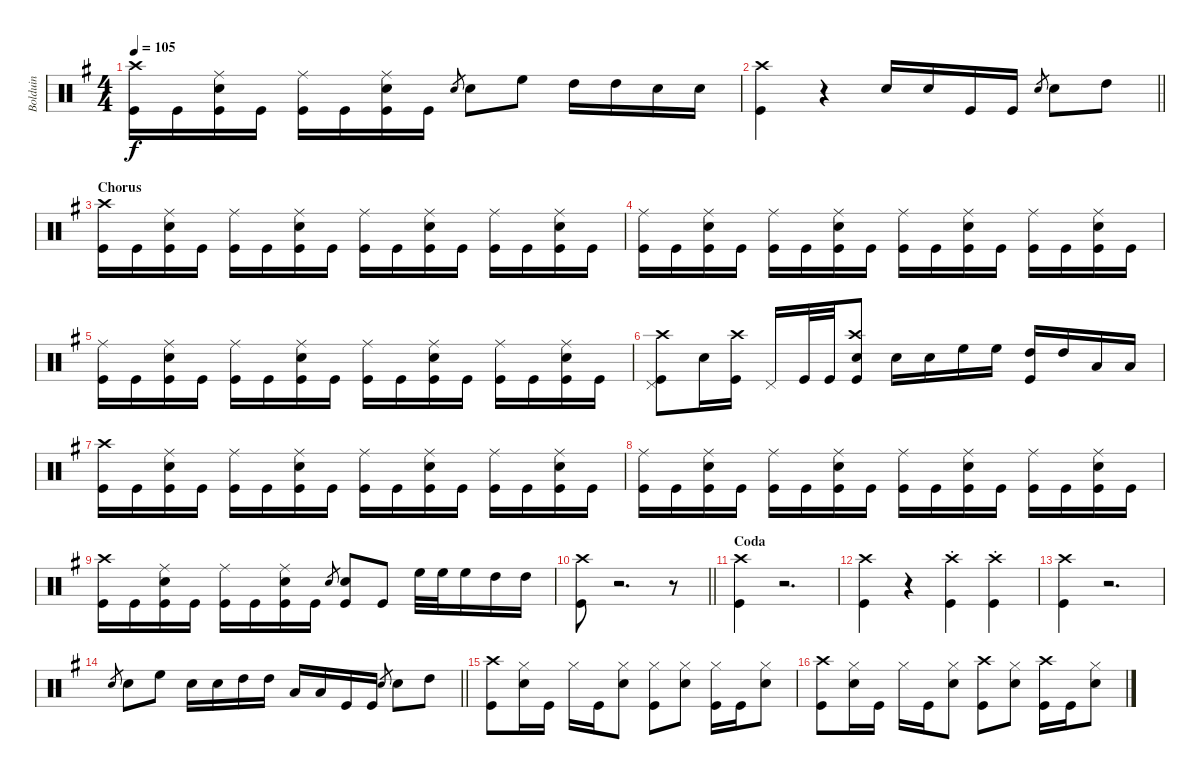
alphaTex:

\track ("Bolduin" "Bolduin") {instrument percussion}
\staff {score}
\articulation defaults
\ts (4 4)
\tempo 105
\clef neutral
\ks eminor
("Kick (hit)" "Crash high (hit)").16{dy f} "Kick (hit)".16 ("Kick (hit)" "Ride (middle)" "Snare (hit) 2").16 "Kick (hit)".16 ("Kick (hit)" "Ride (middle)").16 "Kick (hit)".16 ("Kick (hit)" "Ride (middle)" "Snare (hit) 2").16 "Kick (hit)".16 "Snare (hit) 2".8{gr} "Snare (hit) 2".8 "High Floor Tom (hit)".8 "High Tom (hit)".16 "High Tom (hit)".16 "Snare (hit) 2".16 "Snare (hit) 2".16 |
\barLineRight lightlight
("Kick (hit)" "Crash high (hit)").4 r.4 "Snare (hit) 2".16 "Snare (hit) 2".16 "Kick (hit)".16 "Kick (hit)".16 "Snare (hit) 2".8{gr} "Snare (hit) 2".8 "High Tom (hit)".8 |
\section ("" "Chorus")
("Kick (hit)" "Crash high (hit)").16 "Kick (hit)".16 ("Kick (hit)" "Ride (middle)" "Snare (hit) 2").16 "Kick (hit)".16 ("Kick (hit)" "Ride (middle)").16 "Kick (hit)".16 ("Kick (hit)" "Ride (middle)" "Snare (hit) 2").16 "Kick (hit)".16 ("Kick (hit)" "Ride (middle)").16 "Kick (hit)".16 ("Kick (hit)" "Ride (middle)" "Snare (hit) 2").16 "Kick (hit)".16 ("Kick (hit)" "Ride (middle)").16 "Kick (hit)".16 ("Kick (hit)" "Ride (middle)" "Snare (hit) 2").16 "Kick (hit)".16 |
("Kick (hit)" "Ride (middle)").16 "Kick (hit)".16 ("Kick (hit)" "Ride (middle)" "Snare (hit) 2").16 "Kick (hit)".16 ("Kick (hit)" "Ride (middle)").16 "Kick (hit)".16 ("Kick (hit)" "Ride (middle)" "Snare (hit) 2").16 "Kick (hit)".16 ("Kick (hit)" "Ride (middle)").16 "Kick (hit)".16 ("Kick (hit)" "Ride (middle)" "Snare (hit) 2").16 "Kick (hit)".16 ("Kick (hit)" "Ride (middle)").16 "Kick (hit)".16 ("Kick (hit)" "Ride (middle)" "Snare (hit) 2").16 "Kick (hit)".16 |
("Kick (hit)" "Ride (middle)").16 "Kick (hit)".16 ("Kick (hit)" "Ride (middle)" "Snare (hit) 2").16 "Kick (hit)".16 ("Kick (hit)" "Ride (middle)").16 "Kick (hit)".16 ("Kick (hit)" "Ride (middle)" "Snare (hit) 2").16 "Kick (hit)".16 ("Kick (hit)" "Ride (middle)").16 "Kick (hit)".16 ("Kick (hit)" "Ride (middle)" "Snare (hit) 2").16 "Kick (hit)".16 ("Kick (hit)" "Ride (middle)").16 "Kick (hit)".16 ("Kick (hit)" "Ride (middle)" "Snare (hit) 2").16 "Kick (hit)".16 |
("Crash high (hit)" "Pedal Hi-Hat (hit)" "Kick (hit)").8 "Snare (hit) 2".16 ("Crash high (hit)" "Kick (hit)").16 "Pedal Hi-Hat (hit)".16 "Kick (hit)".32 "Kick (hit)".32 ("Kick (hit)" "Crash high (hit)" "Snare (hit) 2").8 "Snare (hit) 2".16 "Snare (hit) 2".16 "High Floor Tom (hit)".16 "High Floor Tom (hit)".16 ("High Tom (hit)" "Kick (hit)").16 "High Tom (hit)".16 "Low Tom (hit)".16 "Low Tom (hit)".16 |
("Kick (hit)" "Crash high (hit)").16 "Kick (hit)".16 ("Kick (hit)" "Ride (middle)" "Snare (hit) 2").16 "Kick (hit)".16 ("Kick (hit)" "Ride (middle)").16 "Kick (hit)".16 ("Kick (hit)" "Ride (middle)" "Snare (hit) 2").16 "Kick (hit)".16 ("Kick (hit)" "Ride (middle)").16 "Kick (hit)".16 ("Kick (hit)" "Ride (middle)" "Snare (hit) 2").16 "Kick (hit)".16 ("Kick (hit)" "Ride (middle)").16 "Kick (hit)".16 ("Kick (hit)" "Ride (middle)" "Snare (hit) 2").16 "Kick (hit)".16 |
("Kick (hit)" "Ride (middle)").16 "Kick (hit)".16 ("Kick (hit)" "Ride (middle)" "Snare (hit) 2").16 "Kick (hit)".16 ("Kick (hit)" "Ride (middle)").16 "Kick (hit)".16 ("Kick (hit)" "Ride (middle)" "Snare (hit) 2").16 "Kick (hit)".16 ("Kick (hit)" "Ride (middle)").16 "Kick (hit)".16 ("Kick (hit)" "Ride (middle)" "Snare (hit) 2").16 "Kick (hit)".16 ("Kick (hit)" "Ride (middle)").16 "Kick (hit)".16 ("Kick (hit)" "Ride (middle)" "Snare (hit) 2").16 "Kick (hit)".16 |
("Kick (hit)" "Crash high (hit)").16 "Kick (hit)".16 ("Kick (hit)" "Ride (middle)" "Snare (hit) 2").16 "Kick (hit)".16 ("Kick (hit)" "Ride (middle)").16 "Kick (hit)".16 ("Kick (hit)" "Ride (middle)" "Snare (hit) 2").16 "Kick (hit)".16 "Snare (hit) 2".8{gr} ("Kick (hit)" "Snare (hit) 2").8 "Kick (hit)".8 "High Floor Tom (hit)".32 "High Floor Tom (hit)".32 "High Floor Tom (hit)".16 "High Tom (hit)".16 "High Tom (hit)".16 |
\barLineRight lightlight
("Crash high (hit)" "Kick (hit)").8 r.2{d} r.8 |
\section ("" "Coda")
("Crash high (hit)" "Kick (hit)").4 r.2{d} |
("Crash high (hit)" "Kick (hit)").4 r.4 ("Crash high (hit)"{st} "Kick (hit)").4 ("Crash high (hit)"{st} "Kick (hit)").4 |
("Crash high (hit)" "Kick (hit)").4 r.2{d} |
\barLineRight lightlight "Snare (hit) 2".8{gr} "Snare (hit) 2".8 "High Floor Tom (hit)".8 "Snare (hit) 2".16 "Snare (hit) 2".16 "High Tom (hit)".16 "High Tom (hit)".16 "Low Tom (hit)".16 "Low Tom (hit)".16 "Kick (hit)".16 "Kick (hit)".16 "Snare (hit) 2".8{gr} "Snare (hit) 2".8 "High Tom (hit)".8
|
("Kick (hit)" "Crash high (hit)").8 ("Hi-Hat (closed)" "Snare (hit) 2").16 "Kick (hit)".16 "Hi-Hat (closed)".16 "Kick (hit)".16 ("Snare (hit) 2" "Hi-Hat (closed)").8 ("Kick (hit)" "Hi-Hat (closed)").8 ("Snare (hit) 2" "Hi-Hat (closed)").8 ("Kick (hit)" "Hi-Hat (closed)").16 "Kick (hit)".16 ("Hi-Hat (closed)" "Snare (hit) 2").8 |
("Kick (hit)" "Crash high (hit)").8 ("Hi-Hat (closed)" "Snare (hit) 2").16 "Kick (hit)".16 "Hi-Hat (closed)".16 "Kick (hit)".16 ("Snare (hit) 2" "Hi-Hat (closed)").8 ("Kick (hit)" "Crash high (hit)").8 ("Snare (hit) 2" "Hi-Hat (closed)").8 ("Kick (hit)" "Crash high (hit)").16 "Kick (hit)".16 ("Hi-Hat (closed)" "Snare (hit) 2").8
